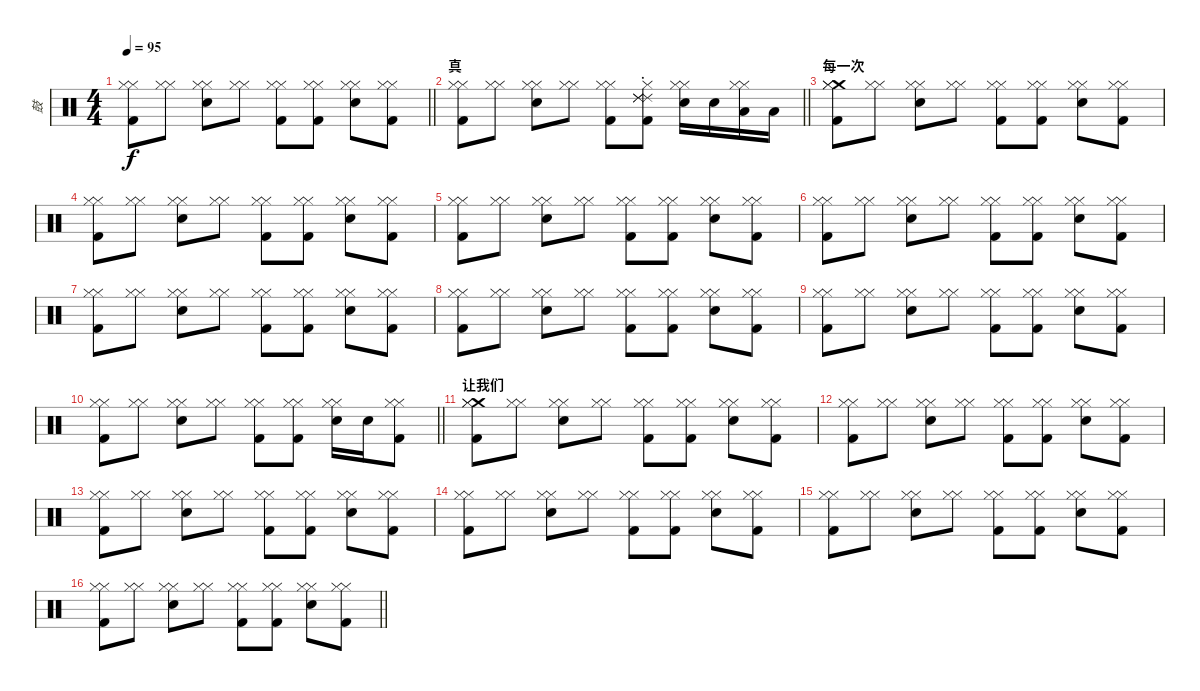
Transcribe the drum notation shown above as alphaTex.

\track ("鼓" "鼓") {instrument percussion}
\staff {score}
\articulation defaults
\ts (4 4)
\tempo 95
\clef neutral
\barLineRight lightlight
\ks c
("Hi-Hat (closed)" "Hi-Hat (closed)" "Kick (hit) 2").8{dy f} ("Hi-Hat (closed)" "Hi-Hat (closed)").8 ("Hi-Hat (closed)" "Hi-Hat (closed)" "Metronome (bell)").8 ("Hi-Hat (closed)" "Hi-Hat (closed)").8 ("Hi-Hat (closed)" "Hi-Hat (closed)" "Kick (hit) 2").8 ("Hi-Hat (closed)" "Hi-Hat (closed)" "Kick (hit) 2").8 ("Hi-Hat (closed)" "Hi-Hat (closed)" "Metronome (bell)").8 ("Hi-Hat (closed)" "Hi-Hat (closed)" "Kick (hit) 2").8 |
\section ("" "真")
\barLineRight lightlight
("Hi-Hat (closed)" "Hi-Hat (closed)" "Kick (hit) 2").8 ("Hi-Hat (closed)" "Hi-Hat (closed)").8 ("Hi-Hat (closed)" "Hi-Hat (closed)" "Metronome (bell)").8 ("Hi-Hat (closed)" "Hi-Hat (closed)").8 ("Hi-Hat (closed)" "Hi-Hat (closed)" "Kick (hit) 2").8 ("Hi-Hat (closed)" "Ride (choke) 2" "Ride (choke) 2" "Ride (choke) 2" "Kick (hit) 2").8 ("Hi-Hat (closed)" "Hi-Hat (closed)" "Metronome (bell)").16{volume 11} "Metronome (bell)".16{volume 12} ("Hi-Hat (closed)" "Hi-Hat (closed)" "Low Tom (hit)").16{volume 13} "Low Tom (hit)".16{volume 14} |
\section ("" "每一次")
("Crash medium (hit)" "Hi-Hat (closed)" "Hi-Hat (closed)" "Kick (hit) 2").8 ("Hi-Hat (closed)" "Hi-Hat (closed)").8 ("Hi-Hat (closed)" "Hi-Hat (closed)" "Metronome (bell)").8 ("Hi-Hat (closed)" "Hi-Hat (closed)").8 ("Hi-Hat (closed)" "Hi-Hat (closed)" "Kick (hit) 2").8 ("Hi-Hat (closed)" "Hi-Hat (closed)" "Kick (hit) 2").8 ("Hi-Hat (closed)" "Hi-Hat (closed)" "Metronome (bell)").8 ("Hi-Hat (closed)" "Hi-Hat (closed)" "Kick (hit) 2").8 |
("Hi-Hat (closed)" "Hi-Hat (closed)" "Kick (hit) 2").8{volume 13} ("Hi-Hat (closed)" "Hi-Hat (closed)").8 ("Hi-Hat (closed)" "Hi-Hat (closed)" "Metronome (bell)").8 ("Hi-Hat (closed)" "Hi-Hat (closed)").8 ("Hi-Hat (closed)" "Hi-Hat (closed)" "Kick (hit) 2").8 ("Hi-Hat (closed)" "Hi-Hat (closed)" "Kick (hit) 2").8 ("Hi-Hat (closed)" "Hi-Hat (closed)" "Metronome (bell)").8 ("Hi-Hat (closed)" "Hi-Hat (closed)" "Kick (hit) 2").8 |
("Hi-Hat (closed)" "Hi-Hat (closed)" "Kick (hit) 2").8 ("Hi-Hat (closed)" "Hi-Hat (closed)").8 ("Hi-Hat (closed)" "Hi-Hat (closed)" "Metronome (bell)").8 ("Hi-Hat (closed)" "Hi-Hat (closed)").8 ("Hi-Hat (closed)" "Hi-Hat (closed)" "Kick (hit) 2").8 ("Hi-Hat (closed)" "Hi-Hat (closed)" "Kick (hit) 2").8 ("Hi-Hat (closed)" "Hi-Hat (closed)" "Metronome (bell)").8 ("Hi-Hat (closed)" "Hi-Hat (closed)" "Kick (hit) 2").8 |
("Hi-Hat (closed)" "Hi-Hat (closed)" "Kick (hit) 2").8 ("Hi-Hat (closed)" "Hi-Hat (closed)").8 ("Hi-Hat (closed)" "Hi-Hat (closed)" "Metronome (bell)").8 ("Hi-Hat (closed)" "Hi-Hat (closed)").8 ("Hi-Hat (closed)" "Hi-Hat (closed)" "Kick (hit) 2").8 ("Hi-Hat (closed)" "Hi-Hat (closed)" "Kick (hit) 2").8 ("Hi-Hat (closed)" "Hi-Hat (closed)" "Metronome (bell)").8 ("Hi-Hat (closed)" "Hi-Hat (closed)" "Kick (hit) 2").8 |
("Hi-Hat (closed)" "Hi-Hat (closed)" "Kick (hit) 2").8 ("Hi-Hat (closed)" "Hi-Hat (closed)").8 ("Hi-Hat (closed)" "Hi-Hat (closed)" "Metronome (bell)").8 ("Hi-Hat (closed)" "Hi-Hat (closed)").8 ("Hi-Hat (closed)" "Hi-Hat (closed)" "Kick (hit) 2").8 ("Hi-Hat (closed)" "Hi-Hat (closed)" "Kick (hit) 2").8 ("Hi-Hat (closed)" "Hi-Hat (closed)" "Metronome (bell)").8 ("Hi-Hat (closed)" "Hi-Hat (closed)" "Kick (hit) 2").8 |
("Hi-Hat (closed)" "Hi-Hat (closed)" "Kick (hit) 2").8 ("Hi-Hat (closed)" "Hi-Hat (closed)").8 ("Hi-Hat (closed)" "Hi-Hat (closed)" "Metronome (bell)").8 ("Hi-Hat (closed)" "Hi-Hat (closed)").8 ("Hi-Hat (closed)" "Hi-Hat (closed)" "Kick (hit) 2").8 ("Hi-Hat (closed)" "Hi-Hat (closed)" "Kick (hit) 2").8 ("Hi-Hat (closed)" "Hi-Hat (closed)" "Metronome (bell)").8 ("Hi-Hat (closed)" "Hi-Hat (closed)" "Kick (hit) 2").8 |
("Hi-Hat (closed)" "Hi-Hat (closed)" "Kick (hit) 2").8 ("Hi-Hat (closed)" "Hi-Hat (closed)").8 ("Hi-Hat (closed)" "Hi-Hat (closed)" "Metronome (bell)").8 ("Hi-Hat (closed)" "Hi-Hat (closed)").8 ("Hi-Hat (closed)" "Hi-Hat (closed)" "Kick (hit) 2").8 ("Hi-Hat (closed)" "Hi-Hat (closed)" "Kick (hit) 2").8 ("Hi-Hat (closed)" "Hi-Hat (closed)" "Metronome (bell)").8 ("Hi-Hat (closed)" "Hi-Hat (closed)" "Kick (hit) 2").8 |
\barLineRight lightlight
("Hi-Hat (closed)" "Hi-Hat (closed)" "Kick (hit) 2").8 ("Hi-Hat (closed)" "Hi-Hat (closed)").8 ("Hi-Hat (closed)" "Hi-Hat (closed)" "Metronome (bell)").8 ("Hi-Hat (closed)" "Hi-Hat (closed)").8 ("Hi-Hat (closed)" "Hi-Hat (closed)" "Kick (hit) 2").8 ("Hi-Hat (closed)" "Hi-Hat (closed)" "Kick (hit) 2").8 ("Hi-Hat (closed)" "Hi-Hat (closed)" "Metronome (bell)").16 "Metronome (bell)".16 ("Hi-Hat (closed)" "Hi-Hat (closed)" "Kick (hit) 2").8 |
\section ("" "让我们")
("Crash medium (hit)" "Hi-Hat (closed)" "Hi-Hat (closed)" "Kick (hit) 2").8{volume 13} ("Hi-Hat (closed)" "Hi-Hat (closed)").8 ("Hi-Hat (closed)" "Hi-Hat (closed)" "Metronome (bell)").8 ("Hi-Hat (closed)" "Hi-Hat (closed)").8 ("Hi-Hat (closed)" "Hi-Hat (closed)" "Kick (hit) 2").8 ("Hi-Hat (closed)" "Hi-Hat (closed)" "Kick (hit) 2").8 ("Hi-Hat (closed)" "Hi-Hat (closed)" "Metronome (bell)").8 ("Hi-Hat (closed)" "Hi-Hat (closed)" "Kick (hit) 2").8 |
("Hi-Hat (closed)" "Hi-Hat (closed)" "Kick (hit) 2").8 ("Hi-Hat (closed)" "Hi-Hat (closed)").8 ("Hi-Hat (closed)" "Hi-Hat (closed)" "Metronome (bell)").8 ("Hi-Hat (closed)" "Hi-Hat (closed)").8 ("Hi-Hat (closed)" "Hi-Hat (closed)" "Kick (hit) 2").8 ("Hi-Hat (closed)" "Hi-Hat (closed)" "Kick (hit) 2").8 ("Hi-Hat (closed)" "Hi-Hat (closed)" "Metronome (bell)").8 ("Hi-Hat (closed)" "Hi-Hat (closed)" "Kick (hit) 2").8 |
("Hi-Hat (closed)" "Hi-Hat (closed)" "Kick (hit) 2").8 ("Hi-Hat (closed)" "Hi-Hat (closed)").8 ("Hi-Hat (closed)" "Hi-Hat (closed)" "Metronome (bell)").8 ("Hi-Hat (closed)" "Hi-Hat (closed)").8 ("Hi-Hat (closed)" "Hi-Hat (closed)" "Kick (hit) 2").8 ("Hi-Hat (closed)" "Hi-Hat (closed)" "Kick (hit) 2").8 ("Hi-Hat (closed)" "Hi-Hat (closed)" "Metronome (bell)").8 ("Hi-Hat (closed)" "Hi-Hat (closed)" "Kick (hit) 2").8 |
("Hi-Hat (closed)" "Hi-Hat (closed)" "Kick (hit) 2").8 ("Hi-Hat (closed)" "Hi-Hat (closed)").8 ("Hi-Hat (closed)" "Hi-Hat (closed)" "Metronome (bell)").8 ("Hi-Hat (closed)" "Hi-Hat (closed)").8 ("Hi-Hat (closed)" "Hi-Hat (closed)" "Kick (hit) 2").8 ("Hi-Hat (closed)" "Hi-Hat (closed)" "Kick (hit) 2").8 ("Hi-Hat (closed)" "Hi-Hat (closed)" "Metronome (bell)").8 ("Hi-Hat (closed)" "Hi-Hat (closed)" "Kick (hit) 2").8 |
("Hi-Hat (closed)" "Hi-Hat (closed)" "Kick (hit) 2").8 ("Hi-Hat (closed)" "Hi-Hat (closed)").8 ("Hi-Hat (closed)" "Hi-Hat (closed)" "Metronome (bell)").8 ("Hi-Hat (closed)" "Hi-Hat (closed)").8 ("Hi-Hat (closed)" "Hi-Hat (closed)" "Kick (hit) 2").8 ("Hi-Hat (closed)" "Hi-Hat (closed)" "Kick (hit) 2").8 ("Hi-Hat (closed)" "Hi-Hat (closed)" "Metronome (bell)").8 ("Hi-Hat (closed)" "Hi-Hat (closed)" "Kick (hit) 2").8 |
\barLineRight lightlight
("Hi-Hat (closed)" "Hi-Hat (closed)" "Kick (hit) 2").8 ("Hi-Hat (closed)" "Hi-Hat (closed)").8 ("Hi-Hat (closed)" "Hi-Hat (closed)" "Metronome (bell)").8 ("Hi-Hat (closed)" "Hi-Hat (closed)").8 ("Hi-Hat (closed)" "Hi-Hat (closed)" "Kick (hit) 2").8 ("Hi-Hat (closed)" "Hi-Hat (closed)" "Kick (hit) 2").8 ("Hi-Hat (closed)" "Hi-Hat (closed)" "Metronome (bell)").8 ("Hi-Hat (closed)" "Hi-Hat (closed)" "Kick (hit) 2").8
